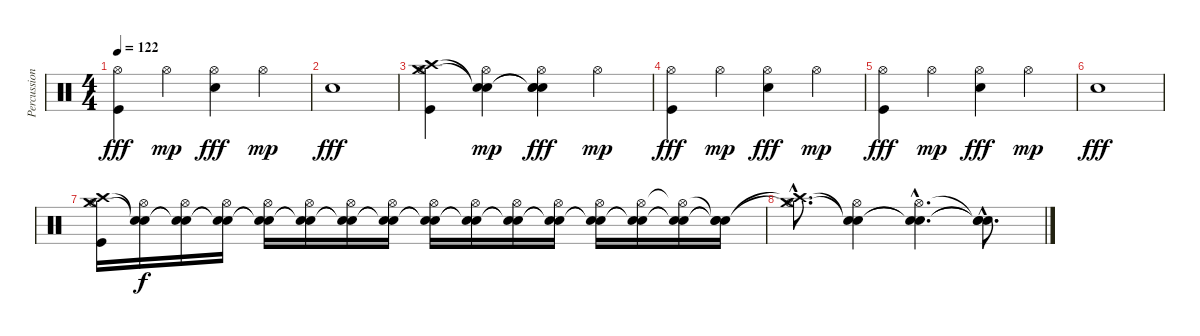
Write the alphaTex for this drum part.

\track ("Percussion" "Percussion") {instrument percussion}
\staff {score}
\articulation defaults
\ts (4 4)
\tempo 122
\clef neutral
\ks c
("Hi-Hat (open)" "Kick (hit)").4{dy fff} "Hi-Hat (open)".4{dy mp} ("Hi-Hat (open)" "Snare (hit) 2").4{dy fff} "Hi-Hat (open)".4{dy mp} |
"Snare (hit) 2".1{dy fff} |
("Hi-Hat (open)" "Crash high (hit)" "Crash medium (hit)" "Kick (hit)").4 ("Hi-Hat (open)" "Snare (hit)"{t} "Snare (hit)"{t}).4{dy mp} ("Hi-Hat (open)" "Snare (hit)"{t} "Snare (hit)"{t} "Snare (hit) 2").4{dy fff} "Hi-Hat (open)".4{dy mp} |
("Hi-Hat (open)" "Kick (hit)").4{dy fff} "Hi-Hat (open)".4{dy mp} ("Hi-Hat (open)" "Snare (hit) 2").4{dy fff} "Hi-Hat (open)".4{dy mp} |
("Hi-Hat (open)" "Kick (hit)").4{dy fff} "Hi-Hat (open)".4{dy mp} ("Hi-Hat (open)" "Snare (hit) 2").4{dy fff} "Hi-Hat (open)".4{dy mp} |
"Snare (hit) 2".1{dy fff} |
("Hi-Hat (open)" "Crash high (hit)" "Crash medium (hit)" "Kick (hit)").16 ("Hi-Hat (open)" "Snare (hit)"{t} "Snare (hit)"{t}).16{dy f} ("Hi-Hat (open)" "Snare (hit)"{t} "Snare (hit)"{t}).16 ("Hi-Hat (open)" "Snare (hit)"{t} "Snare (hit)"{t}).16 ("Hi-Hat (open)" "Snare (hit)"{t} "Snare (hit)"{t}).16 ("Hi-Hat (open)" "Snare (hit)"{t} "Snare (hit)"{t}).16 ("Hi-Hat (open)" "Snare (hit)"{t} "Snare (hit)"{t}).16 ("Hi-Hat (open)" "Snare (hit)"{t} "Snare (hit)"{t}).16 ("Hi-Hat (open)" "Snare (hit)"{t} "Snare (hit)"{t}).16 ("Hi-Hat (open)" "Snare (hit)"{t} "Snare (hit)"{t}).16 ("Hi-Hat (open)" "Snare (hit)"{t} "Snare (hit)"{t}).16 ("Hi-Hat (open)" "Snare (hit)"{t} "Snare (hit)"{t}).16 ("Hi-Hat (open)" "Snare (hit)"{t} "Snare (hit)"{t}).16 ("Hi-Hat (open)" "Snare (hit)"{t} "Snare (hit)"{t}).16 ("Hi-Hat (open)"{t} "Snare (hit)"{t} "Snare (hit)"{t}).16 ("Snare (hit)"{t} "Snare (hit)"{t} "Snare (hit)"{t}).16 |
("Hi-Hat (open)"{hac} "Crash high (hit)"{hac t} "Crash medium (hit)"{hac t}).8{d} ("Hi-Hat (open)" "Snare (hit)"{t} "Snare (hit)"{t}).4 ("Hi-Hat (open)"{hac} "Snare (hit)"{hac t} "Snare (hit)"{hac t}).4{d} ("Snare (hit)"{hac t} "Snare (hit)"{hac t} "Snare (hit)"{hac t}).8{d}
